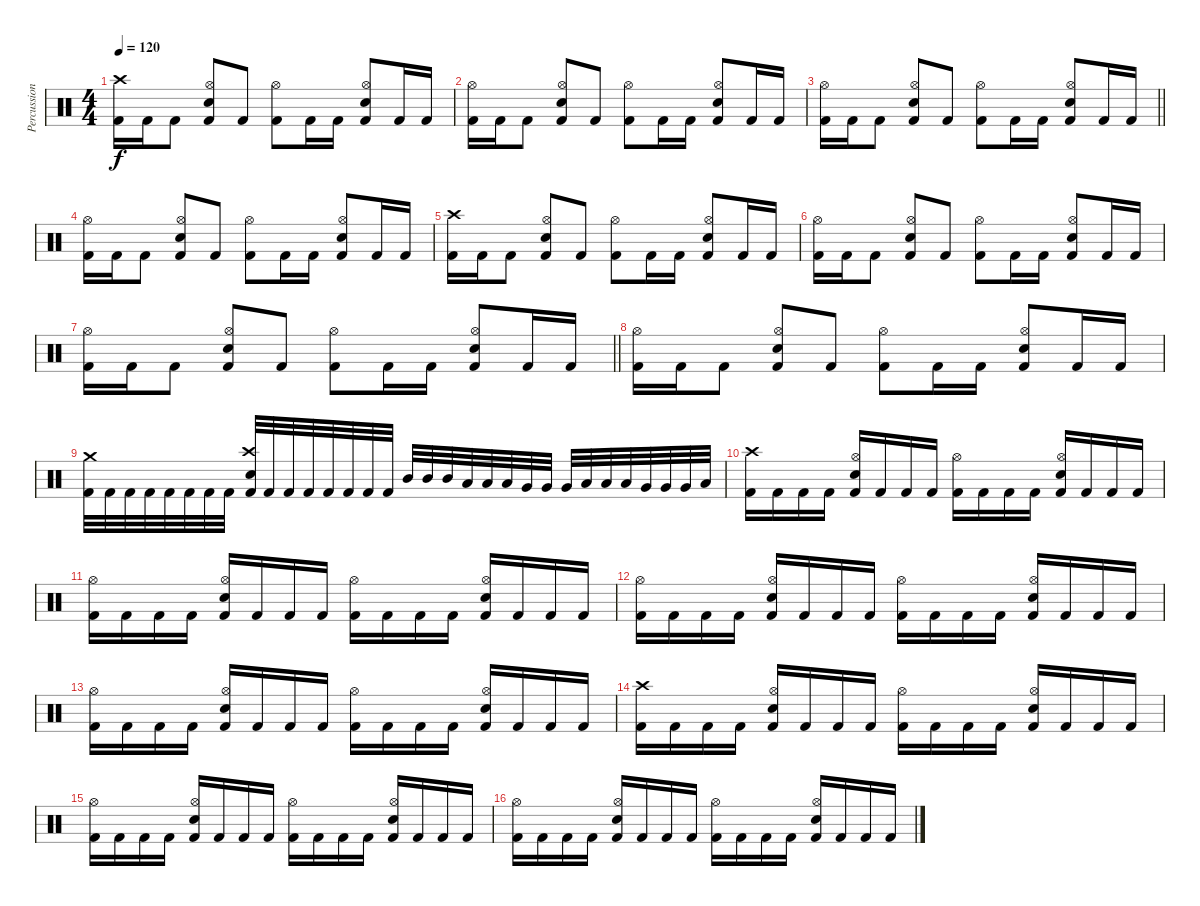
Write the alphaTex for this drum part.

\track ("Percussion" "Percussion") {instrument percussion}
\staff {score}
\articulation defaults
\ts (4 4)
\tempo 120
\clef neutral
\ks c
("Kick (hit) 2" "Crash high (hit)").16{dy f} "Kick (hit) 2".16 "Kick (hit) 2".8 ("Kick (hit) 2" "Hi-Hat (open)" "Electric Snare (hit)").8 "Kick (hit) 2".8 ("Kick (hit) 2" "Hi-Hat (open)").8 "Kick (hit) 2".16 "Kick (hit) 2".16 ("Kick (hit) 2" "Hi-Hat (open)" "Electric Snare (hit)").8 "Kick (hit) 2".16 "Kick (hit) 2".16 |
("Kick (hit) 2" "Hi-Hat (open)").16 "Kick (hit) 2".16 "Kick (hit) 2".8 ("Kick (hit) 2" "Hi-Hat (open)" "Electric Snare (hit)").8 "Kick (hit) 2".8 ("Kick (hit) 2" "Hi-Hat (open)").8 "Kick (hit) 2".16 "Kick (hit) 2".16 ("Kick (hit) 2" "Hi-Hat (open)" "Electric Snare (hit)").8 "Kick (hit) 2".16 "Kick (hit) 2".16 |
\barLineRight lightlight
("Kick (hit) 2" "Hi-Hat (open)").16 "Kick (hit) 2".16 "Kick (hit) 2".8 ("Kick (hit) 2" "Hi-Hat (open)" "Electric Snare (hit)").8 "Kick (hit) 2".8 ("Kick (hit) 2" "Hi-Hat (open)").8 "Kick (hit) 2".16 "Kick (hit) 2".16 ("Kick (hit) 2" "Hi-Hat (open)" "Electric Snare (hit)").8 "Kick (hit) 2".16 "Kick (hit) 2".16 |
("Kick (hit) 2" "Hi-Hat (open)").16 "Kick (hit) 2".16 "Kick (hit) 2".8 ("Kick (hit) 2" "Hi-Hat (open)" "Electric Snare (hit)").8 "Kick (hit) 2".8 ("Kick (hit) 2" "Hi-Hat (open)").8 "Kick (hit) 2".16 "Kick (hit) 2".16 ("Kick (hit) 2" "Hi-Hat (open)" "Electric Snare (hit)").8 "Kick (hit) 2".16 "Kick (hit) 2".16 |
("Kick (hit) 2" "Crash high (hit)").16 "Kick (hit) 2".16 "Kick (hit) 2".8 ("Kick (hit) 2" "Hi-Hat (open)" "Electric Snare (hit)").8 "Kick (hit) 2".8 ("Kick (hit) 2" "Hi-Hat (open)").8 "Kick (hit) 2".16 "Kick (hit) 2".16 ("Kick (hit) 2" "Hi-Hat (open)" "Electric Snare (hit)").8 "Kick (hit) 2".16 "Kick (hit) 2".16 |
("Kick (hit) 2" "Hi-Hat (open)").16 "Kick (hit) 2".16 "Kick (hit) 2".8 ("Kick (hit) 2" "Hi-Hat (open)" "Electric Snare (hit)").8 "Kick (hit) 2".8 ("Kick (hit) 2" "Hi-Hat (open)").8 "Kick (hit) 2".16 "Kick (hit) 2".16 ("Kick (hit) 2" "Hi-Hat (open)" "Electric Snare (hit)").8 "Kick (hit) 2".16 "Kick (hit) 2".16 |
\barLineRight lightlight
("Kick (hit) 2" "Hi-Hat (open)").16 "Kick (hit) 2".16 "Kick (hit) 2".8 ("Kick (hit) 2" "Hi-Hat (open)" "Electric Snare (hit)").8 "Kick (hit) 2".8 ("Kick (hit) 2" "Hi-Hat (open)").8 "Kick (hit) 2".16 "Kick (hit) 2".16 ("Kick (hit) 2" "Hi-Hat (open)" "Electric Snare (hit)").8 "Kick (hit) 2".16 "Kick (hit) 2".16 |
("Kick (hit) 2" "Hi-Hat (open)").16 "Kick (hit) 2".16 "Kick (hit) 2".8 ("Kick (hit) 2" "Hi-Hat (open)" "Electric Snare (hit)").8 "Kick (hit) 2".8 ("Kick (hit) 2" "Hi-Hat (open)").8 "Kick (hit) 2".16 "Kick (hit) 2".16 ("Kick (hit) 2" "Hi-Hat (open)" "Electric Snare (hit)").8 "Kick (hit) 2".16 "Kick (hit) 2".16 |
("Kick (hit) 2" "Crash medium (hit)").32 "Kick (hit) 2".32 "Kick (hit) 2".32 "Kick (hit) 2".32 "Kick (hit) 2".32 "Kick (hit) 2".32 "Kick (hit) 2".32 "Kick (hit) 2".32 ("Kick (hit) 2" "Crash high (hit)" "Electric Snare (hit)").32 "Kick (hit) 2".32 "Kick (hit) 2".32 "Kick (hit) 2".32 "Kick (hit) 2".32 "Kick (hit) 2".32 "Kick (hit) 2".32 "Kick (hit) 2".32 "Mid Tom (hit)".32 "Mid Tom (hit)".32 "Mid Tom (hit)".32 "Low Tom (hit)".32 "Low Tom (hit)".32 "Low Tom (hit)".32 "Very Low Tom (hit)".32 "Very Low Tom (hit)".32 "Very Low Tom (hit)".32 "Low Tom (hit)".32 "Low Tom (hit)".32 "Low Tom (hit)".32 "Very Low Tom (hit)".32 "Very Low Tom (hit)".32 "Very Low Tom (hit)".32 "Low Floor Tom (hit)".32 |
("Kick (hit) 2" "Crash high (hit)").16 "Kick (hit) 2".16 "Kick (hit) 2".16 "Kick (hit) 2".16 ("Kick (hit) 2" "Electric Snare (hit)" "Hi-Hat (open)").16 "Kick (hit) 2".16 "Kick (hit) 2".16 "Kick (hit) 2".16 ("Kick (hit) 2" "Hi-Hat (open)").16 "Kick (hit) 2".16 "Kick (hit) 2".16 "Kick (hit) 2".16 ("Kick (hit) 2" "Hi-Hat (open)" "Electric Snare (hit)").16 "Kick (hit) 2".16 "Kick (hit) 2".16 "Kick (hit) 2".16 |
("Kick (hit) 2" "Hi-Hat (open)").16 "Kick (hit) 2".16 "Kick (hit) 2".16 "Kick (hit) 2".16 ("Kick (hit) 2" "Electric Snare (hit)" "Hi-Hat (open)").16 "Kick (hit) 2".16 "Kick (hit) 2".16 "Kick (hit) 2".16 ("Kick (hit) 2" "Hi-Hat (open)").16 "Kick (hit) 2".16 "Kick (hit) 2".16 "Kick (hit) 2".16 ("Kick (hit) 2" "Hi-Hat (open)" "Electric Snare (hit)").16 "Kick (hit) 2".16 "Kick (hit) 2".16 "Kick (hit) 2".16 |
("Kick (hit) 2" "Hi-Hat (open)").16 "Kick (hit) 2".16 "Kick (hit) 2".16 "Kick (hit) 2".16 ("Kick (hit) 2" "Electric Snare (hit)" "Hi-Hat (open)").16 "Kick (hit) 2".16 "Kick (hit) 2".16 "Kick (hit) 2".16 ("Kick (hit) 2" "Hi-Hat (open)").16 "Kick (hit) 2".16 "Kick (hit) 2".16 "Kick (hit) 2".16 ("Kick (hit) 2" "Hi-Hat (open)" "Electric Snare (hit)").16 "Kick (hit) 2".16 "Kick (hit) 2".16 "Kick (hit) 2".16 |
("Kick (hit) 2" "Hi-Hat (open)").16 "Kick (hit) 2".16 "Kick (hit) 2".16 "Kick (hit) 2".16 ("Kick (hit) 2" "Electric Snare (hit)" "Hi-Hat (open)").16 "Kick (hit) 2".16 "Kick (hit) 2".16 "Kick (hit) 2".16 ("Kick (hit) 2" "Hi-Hat (open)").16 "Kick (hit) 2".16 "Kick (hit) 2".16 "Kick (hit) 2".16 ("Kick (hit) 2" "Hi-Hat (open)" "Electric Snare (hit)").16 "Kick (hit) 2".16 "Kick (hit) 2".16 "Kick (hit) 2".16 |
("Kick (hit) 2" "Crash high (hit)").16 "Kick (hit) 2".16 "Kick (hit) 2".16 "Kick (hit) 2".16 ("Kick (hit) 2" "Electric Snare (hit)" "Hi-Hat (open)").16 "Kick (hit) 2".16 "Kick (hit) 2".16 "Kick (hit) 2".16 ("Kick (hit) 2" "Hi-Hat (open)").16 "Kick (hit) 2".16 "Kick (hit) 2".16 "Kick (hit) 2".16 ("Kick (hit) 2" "Hi-Hat (open)" "Electric Snare (hit)").16 "Kick (hit) 2".16 "Kick (hit) 2".16 "Kick (hit) 2".16 |
("Kick (hit) 2" "Hi-Hat (open)").16 "Kick (hit) 2".16 "Kick (hit) 2".16 "Kick (hit) 2".16 ("Kick (hit) 2" "Electric Snare (hit)" "Hi-Hat (open)").16 "Kick (hit) 2".16 "Kick (hit) 2".16 "Kick (hit) 2".16 ("Kick (hit) 2" "Hi-Hat (open)").16 "Kick (hit) 2".16 "Kick (hit) 2".16 "Kick (hit) 2".16 ("Kick (hit) 2" "Hi-Hat (open)" "Electric Snare (hit)").16 "Kick (hit) 2".16 "Kick (hit) 2".16 "Kick (hit) 2".16 |
("Kick (hit) 2" "Hi-Hat (open)").16 "Kick (hit) 2".16 "Kick (hit) 2".16 "Kick (hit) 2".16 ("Kick (hit) 2" "Electric Snare (hit)" "Hi-Hat (open)").16 "Kick (hit) 2".16 "Kick (hit) 2".16 "Kick (hit) 2".16 ("Kick (hit) 2" "Hi-Hat (open)").16 "Kick (hit) 2".16 "Kick (hit) 2".16 "Kick (hit) 2".16 ("Kick (hit) 2" "Hi-Hat (open)" "Electric Snare (hit)").16 "Kick (hit) 2".16 "Kick (hit) 2".16 "Kick (hit) 2".16
